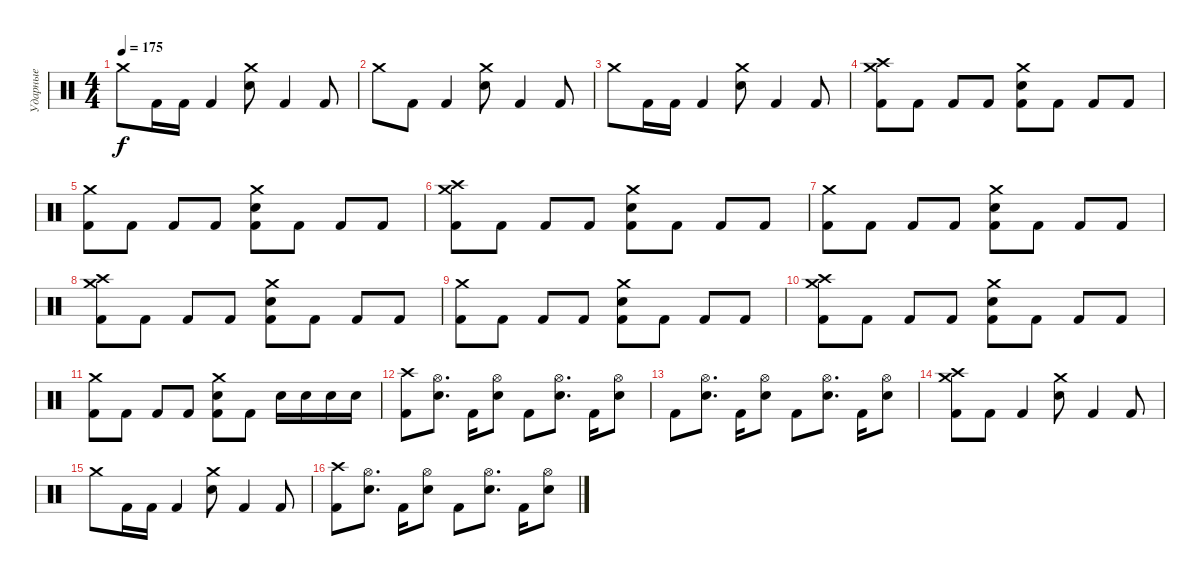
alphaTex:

\track ("Ударные" "Ударные") {instrument percussion}
\staff {score}
\articulation defaults
\ts (4 4)
\tempo 175
\clef neutral
\ks c "Crash medium (hit)".8{dy f} "Kick (hit) 2".16 "Kick (hit) 2".16 "Kick (hit) 2".4
("Crash medium (hit)" "Electric Snare (hit)").8 "Kick (hit) 2".4 "Kick (hit) 2".8 |
"Crash medium (hit)".8 "Kick (hit) 2".8 "Kick (hit) 2".4 ("Crash medium (hit)" "Electric Snare (hit)").8 "Kick (hit) 2".4 "Kick (hit) 2".8 |
"Crash medium (hit)".8 "Kick (hit) 2".16 "Kick (hit) 2".16 "Kick (hit) 2".4 ("Crash medium (hit)" "Electric Snare (hit)").8 "Kick (hit) 2".4 "Kick (hit) 2".8 |
("Crash high (hit)" "Crash medium (hit)" "Kick (hit) 2").8 "Kick (hit) 2".8 "Kick (hit) 2".8 "Kick (hit) 2".8 ("Crash medium (hit)" "Electric Snare (hit)" "Kick (hit) 2").8 "Kick (hit) 2".8 "Kick (hit) 2".8 "Kick (hit) 2".8 |
("Crash medium (hit)" "Kick (hit) 2").8 "Kick (hit) 2".8 "Kick (hit) 2".8 "Kick (hit) 2".8 ("Crash medium (hit)" "Electric Snare (hit)" "Kick (hit) 2").8 "Kick (hit) 2".8 "Kick (hit) 2".8 "Kick (hit) 2".8 |
("Crash high (hit)" "Crash medium (hit)" "Kick (hit) 2").8 "Kick (hit) 2".8 "Kick (hit) 2".8 "Kick (hit) 2".8 ("Crash medium (hit)" "Electric Snare (hit)" "Kick (hit) 2").8 "Kick (hit) 2".8 "Kick (hit) 2".8 "Kick (hit) 2".8 |
("Crash medium (hit)" "Kick (hit) 2").8 "Kick (hit) 2".8 "Kick (hit) 2".8 "Kick (hit) 2".8 ("Crash medium (hit)" "Electric Snare (hit)" "Kick (hit) 2").8 "Kick (hit) 2".8 "Kick (hit) 2".8 "Kick (hit) 2".8 |
("Crash high (hit)" "Crash medium (hit)" "Kick (hit) 2").8 "Kick (hit) 2".8 "Kick (hit) 2".8 "Kick (hit) 2".8 ("Crash medium (hit)" "Electric Snare (hit)" "Kick (hit) 2").8 "Kick (hit) 2".8 "Kick (hit) 2".8 "Kick (hit) 2".8 |
("Crash medium (hit)" "Kick (hit) 2").8 "Kick (hit) 2".8 "Kick (hit) 2".8 "Kick (hit) 2".8 ("Crash medium (hit)" "Electric Snare (hit)" "Kick (hit) 2").8 "Kick (hit) 2".8 "Kick (hit) 2".8 "Kick (hit) 2".8 |
("Crash high (hit)" "Crash medium (hit)" "Kick (hit) 2").8 "Kick (hit) 2".8 "Kick (hit) 2".8 "Kick (hit) 2".8 ("Crash medium (hit)" "Electric Snare (hit)" "Kick (hit) 2").8 "Kick (hit) 2".8 "Kick (hit) 2".8 "Kick (hit) 2".8 |
("Crash medium (hit)" "Kick (hit) 2").8 "Kick (hit) 2".8 "Kick (hit) 2".8 "Kick (hit) 2".8 ("Crash medium (hit)" "Electric Snare (hit)" "Kick (hit) 2").8 "Kick (hit) 2".8 "Electric Snare (hit)".16 "Electric Snare (hit)".16 "Electric Snare (hit)".16 "Electric Snare (hit)".16 |
("Crash high (hit)" "Kick (hit) 2").8 ("Hi-Hat (open)" "Electric Snare (hit)").8{d} "Kick (hit) 2".16 ("Hi-Hat (open)" "Electric Snare (hit)").8 "Kick (hit) 2".8 ("Hi-Hat (open)" "Electric Snare (hit)").8{d} "Kick (hit) 2".16 ("Hi-Hat (open)" "Electric Snare (hit)").8 |
"Kick (hit) 2".8 ("Hi-Hat (open)" "Electric Snare (hit)").8{d} "Kick (hit) 2".16 ("Hi-Hat (open)" "Electric Snare (hit)").8 "Kick (hit) 2".8 ("Hi-Hat (open)" "Electric Snare (hit)").8{d} "Kick (hit) 2".16 ("Hi-Hat (open)" "Electric Snare (hit)").8 |
("Crash high (hit)" "Crash medium (hit)" "Kick (hit) 2").8 "Kick (hit) 2".8 "Kick (hit) 2".4 ("Crash medium (hit)" "Electric Snare (hit)").8 "Kick (hit) 2".4 "Kick (hit) 2".8 |
"Crash medium (hit)".8 "Kick (hit) 2".16 "Kick (hit) 2".16 "Kick (hit) 2".4 ("Crash medium (hit)" "Electric Snare (hit)").8 "Kick (hit) 2".4 "Kick (hit) 2".8 |
("Crash high (hit)" "Kick (hit) 2").8 ("Hi-Hat (open)" "Electric Snare (hit)").8{d} "Kick (hit) 2".16 ("Hi-Hat (open)" "Electric Snare (hit)").8 "Kick (hit) 2".8 ("Hi-Hat (open)" "Electric Snare (hit)").8{d} "Kick (hit) 2".16 ("Hi-Hat (open)" "Electric Snare (hit)").8
